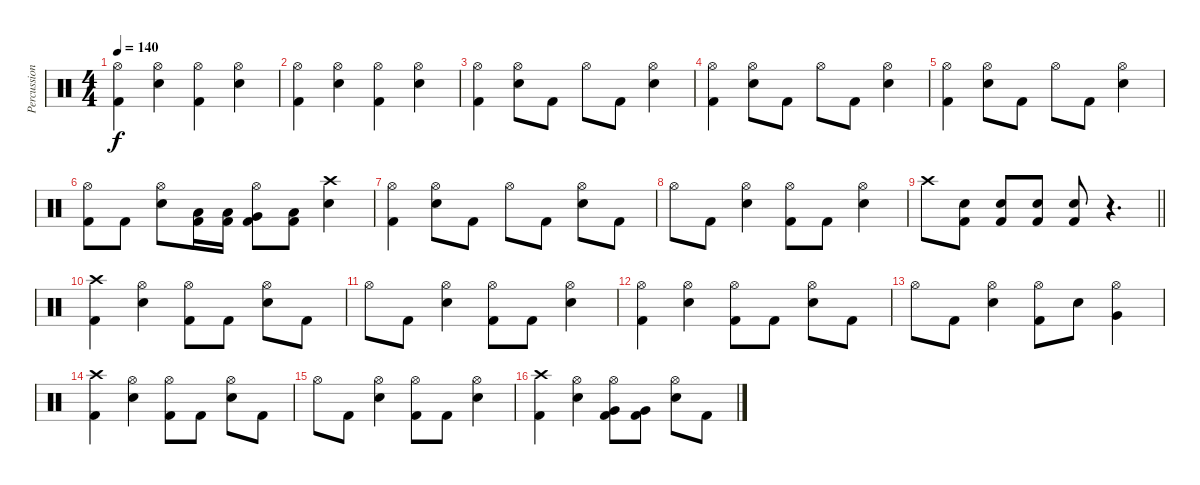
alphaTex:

\track ("Percussion" "Percussion") {instrument percussion}
\staff {score}
\articulation defaults
\ts (4 4)
\tempo 140
\clef neutral
\ks c
("Hi-Hat (open)" "Kick (hit) 2").4{dy f} ("Hi-Hat (open)" "Snare (hit) 2").4 ("Hi-Hat (open)" "Kick (hit) 2").4 ("Hi-Hat (open)" "Snare (hit) 2").4 |
("Hi-Hat (open)" "Kick (hit) 2").4 ("Hi-Hat (open)" "Snare (hit) 2").4 ("Hi-Hat (open)" "Kick (hit) 2").4 ("Hi-Hat (open)" "Snare (hit) 2").4 |
("Hi-Hat (open)" "Kick (hit) 2").4 ("Hi-Hat (open)" "Snare (hit) 2").8 "Kick (hit) 2".8 "Hi-Hat (open)".8 "Kick (hit) 2".8 ("Hi-Hat (open)" "Snare (hit) 2").4 |
("Hi-Hat (open)" "Kick (hit) 2").4 ("Hi-Hat (open)" "Snare (hit) 2").8 "Kick (hit) 2".8 "Hi-Hat (open)".8 "Kick (hit) 2".8 ("Hi-Hat (open)" "Snare (hit) 2").4 |
("Hi-Hat (open)" "Kick (hit) 2").4 ("Hi-Hat (open)" "Snare (hit) 2").8 "Kick (hit) 2".8 "Hi-Hat (open)".8 "Kick (hit) 2".8 ("Hi-Hat (open)" "Snare (hit) 2").4 |
("Hi-Hat (open)" "Kick (hit) 2").8 "Kick (hit) 2".8 ("Hi-Hat (open)" "Snare (hit) 2").8 ("Low Floor Tom (hit)" "Kick (hit) 2").16 ("Low Floor Tom (hit)" "Kick (hit) 2").16 ("Hi-Hat (open)" "Very Low Tom (hit)" "Kick (hit) 2").8 ("Low Floor Tom (hit)" "Kick (hit) 2").8 ("Crash high (hit)" "Snare (hit) 2").4 |
("Hi-Hat (open)" "Kick (hit) 2").4 ("Hi-Hat (open)" "Snare (hit) 2").8 "Kick (hit) 2".8 "Hi-Hat (open)".8 "Kick (hit) 2".8 ("Hi-Hat (open)" "Snare (hit) 2").8 "Kick (hit) 2".8 |
"Hi-Hat (open)".8 "Kick (hit) 2".8 ("Hi-Hat (open)" "Snare (hit) 2").4 ("Hi-Hat (open)" "Kick (hit) 2").8 "Kick (hit) 2".8 ("Hi-Hat (open)" "Snare (hit) 2").4 |
\barLineRight lightlight "Crash high (hit)".8
("Snare (hit) 2" "Kick (hit) 2").8 ("Snare (hit) 2" "Kick (hit) 2").8 ("Snare (hit) 2" "Kick (hit) 2").8 ("Snare (hit) 2" "Kick (hit) 2").8 r.4{d} |
("Crash high (hit)" "Kick (hit) 2").4 ("Hi-Hat (open)" "Snare (hit) 2").4 ("Hi-Hat (open)" "Kick (hit) 2").8 "Kick (hit) 2".8 ("Hi-Hat (open)" "Snare (hit) 2").8 "Kick (hit) 2".8 |
"Hi-Hat (open)".8 "Kick (hit) 2".8 ("Hi-Hat (open)" "Snare (hit) 2").4 ("Hi-Hat (open)" "Kick (hit) 2").8 "Kick (hit) 2".8 ("Hi-Hat (open)" "Snare (hit) 2").4 |
("Hi-Hat (open)" "Kick (hit) 2").4 ("Hi-Hat (open)" "Snare (hit) 2").4 ("Hi-Hat (open)" "Kick (hit) 2").8 "Kick (hit) 2".8 ("Hi-Hat (open)" "Snare (hit) 2").8 "Kick (hit) 2".8 |
"Hi-Hat (open)".8 "Kick (hit) 2".8 ("Hi-Hat (open)" "Snare (hit) 2").4 ("Hi-Hat (open)" "Kick (hit) 2").8 "Snare (hit) 2".8 ("Hi-Hat (open)" "Very Low Tom (hit)").4 |
("Crash high (hit)" "Kick (hit) 2").4 ("Hi-Hat (open)" "Snare (hit) 2").4 ("Hi-Hat (open)" "Kick (hit) 2").8 "Kick (hit) 2".8 ("Hi-Hat (open)" "Snare (hit) 2").8 "Kick (hit) 2".8 |
"Hi-Hat (open)".8 "Kick (hit) 2".8 ("Hi-Hat (open)" "Snare (hit) 2").4 ("Hi-Hat (open)" "Kick (hit) 2").8 "Kick (hit) 2".8 ("Hi-Hat (open)" "Snare (hit) 2").4 |
("Crash high (hit)" "Kick (hit) 2").4 ("Hi-Hat (open)" "Snare (hit) 2").4 ("Hi-Hat (open)" "Very Low Tom (hit)" "Kick (hit) 2").8 ("Very Low Tom (hit)" "Kick (hit) 2").8 ("Hi-Hat (open)" "Snare (hit) 2").8 "Kick (hit) 2".8
